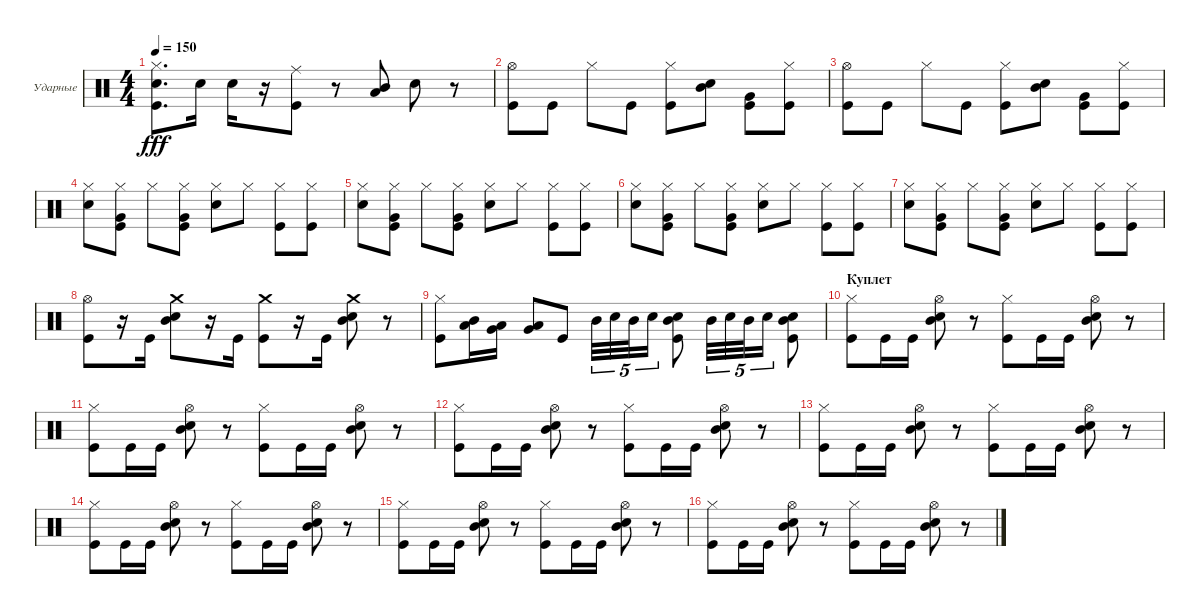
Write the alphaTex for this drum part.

\bracketExtendMode groupsimilarinstruments
\firstSystemTrackNameOrientation horizontal
\otherSystemsTrackNameOrientation horizontal
\track ("Максим Удалов" "Ударные") {instrument percussion}
\staff {score}
\articulation defaults
\ts (4 4)
\tempo 150
\clef neutral
\ks c
("Hi-Hat (closed)" "Snare (hit) 2" "Kick (hit)").8{d dy fff} "Snare (hit) 2".16 "Snare (hit) 2".16 r.16 ("Ride (middle)" "Kick (hit)").8 r.8 ("Low Tom (hit)" "Mid Tom (hit)").8 "Snare (hit) 2".8 r.8 |
("Hi-Hat (open)" "Kick (hit)").8 "Kick (hit)".8 "Hi-Hat (closed)".8 "Kick (hit)".8 ("Kick (hit)" "Hi-Hat (closed)").8 ("Snare (hit) 2" "Mid Tom (hit)").8 ("Very Low Tom (hit)" "Kick (hit)").8 ("Kick (hit)" "Hi-Hat (closed)").8 |
("Hi-Hat (open)" "Kick (hit)").8 "Kick (hit)".8 "Hi-Hat (closed)".8 "Kick (hit)".8 ("Kick (hit)" "Hi-Hat (closed)").8 ("Snare (hit) 2" "Mid Tom (hit)").8 ("Very Low Tom (hit)" "Kick (hit)").8 ("Kick (hit)" "Hi-Hat (closed)").8 |
("Snare (hit) 2" "Hi-Hat (closed)").8 ("Hi-Hat (closed)" "Very Low Tom (hit)" "Kick (hit)").8 "Hi-Hat (closed)".8 ("Hi-Hat (closed)" "Very Low Tom (hit)" "Kick (hit)").8 ("Hi-Hat (closed)" "Snare (hit) 2").8 "Hi-Hat (closed)".8 ("Hi-Hat (closed)" "Kick (hit)").8 ("Hi-Hat (closed)" "Kick (hit)").8 |
("Snare (hit) 2" "Hi-Hat (closed)").8 ("Hi-Hat (closed)" "Very Low Tom (hit)" "Kick (hit)").8 "Hi-Hat (closed)".8 ("Hi-Hat (closed)" "Very Low Tom (hit)" "Kick (hit)").8 ("Hi-Hat (closed)" "Snare (hit) 2").8 "Hi-Hat (closed)".8 ("Hi-Hat (closed)" "Kick (hit)").8 ("Hi-Hat (closed)" "Kick (hit)").8 |
("Snare (hit) 2" "Hi-Hat (closed)").8 ("Hi-Hat (closed)" "Very Low Tom (hit)" "Kick (hit)").8 "Hi-Hat (closed)".8 ("Hi-Hat (closed)" "Very Low Tom (hit)" "Kick (hit)").8 ("Hi-Hat (closed)" "Snare (hit) 2").8 "Hi-Hat (closed)".8 ("Hi-Hat (closed)" "Kick (hit)").8 ("Hi-Hat (closed)" "Kick (hit)").8 |
("Snare (hit) 2" "Hi-Hat (closed)").8 ("Hi-Hat (closed)" "Very Low Tom (hit)" "Kick (hit)").8 "Hi-Hat (closed)".8 ("Hi-Hat (closed)" "Very Low Tom (hit)" "Kick (hit)").8 ("Hi-Hat (closed)" "Snare (hit) 2").8 "Hi-Hat (closed)".8 ("Hi-Hat (closed)" "Kick (hit)").8 ("Hi-Hat (closed)" "Kick (hit)").8 |
\section ("" "")
("Kick (hit)" "Hi-Hat (open)").8 r.16 "Kick (hit)".16 ("Mid Tom (hit)" "Snare (hit) 2" "Crash medium (hit)").8 r.16 "Kick (hit)".16 ("Kick (hit)" "Crash medium (hit)").8 r.16 "Kick (hit)".16 ("Mid Tom (hit)" "Snare (hit) 2" "Crash medium (hit)").8 r.8 |
("Hi-Hat (closed)" "Kick (hit)").8 ("Mid Tom (hit)" "Low Tom (hit)").16 ("Low Tom (hit)" "Very Low Tom (hit)").16 ("Low Tom (hit)" "Very Low Tom (hit)").8 "Kick (hit)".8 "Mid Tom (hit)".32{tu (5 4)} "Snare (hit) 2".32{tu (5 4)} "Mid Tom (hit)".32{tu (5 4)} "Snare (hit) 2".16{tu (5 4)} ("Kick (hit)" "Mid Tom (hit)" "Snare (hit) 2").8 "Mid Tom (hit)".32{tu (5 4)} "Snare (hit) 2".32{tu (5 4)} "Mid Tom (hit)".32{tu (5 4)} "Snare (hit) 2".16{tu (5 4)} ("Mid Tom (hit)" "Kick (hit)" "Snare (hit) 2").8 |
\section ("" "Куплет")
("Hi-Hat (closed)" "Kick (hit)").8 "Kick (hit)".16 "Kick (hit)".16 ("Hi-Hat (open)" "Mid Tom (hit)" "Snare (hit) 2").8 r.8 ("Hi-Hat (closed)" "Kick (hit)").8 "Kick (hit)".16 "Kick (hit)".16 ("Hi-Hat (open)" "Mid Tom (hit)" "Snare (hit) 2").8 r.8 |
("Hi-Hat (closed)" "Kick (hit)").8 "Kick (hit)".16 "Kick (hit)".16 ("Hi-Hat (open)" "Mid Tom (hit)" "Snare (hit) 2").8 r.8 ("Hi-Hat (closed)" "Kick (hit)").8 "Kick (hit)".16 "Kick (hit)".16 ("Hi-Hat (open)" "Mid Tom (hit)" "Snare (hit) 2").8 r.8 |
("Hi-Hat (closed)" "Kick (hit)").8 "Kick (hit)".16 "Kick (hit)".16 ("Hi-Hat (open)" "Mid Tom (hit)" "Snare (hit) 2").8 r.8 ("Hi-Hat (closed)" "Kick (hit)").8 "Kick (hit)".16 "Kick (hit)".16 ("Hi-Hat (open)" "Mid Tom (hit)" "Snare (hit) 2").8 r.8 |
("Hi-Hat (closed)" "Kick (hit)").8 "Kick (hit)".16 "Kick (hit)".16 ("Hi-Hat (open)" "Mid Tom (hit)" "Snare (hit) 2").8 r.8 ("Hi-Hat (closed)" "Kick (hit)").8 "Kick (hit)".16 "Kick (hit)".16 ("Hi-Hat (open)" "Mid Tom (hit)" "Snare (hit) 2").8 r.8 |
("Hi-Hat (closed)" "Kick (hit)").8 "Kick (hit)".16 "Kick (hit)".16 ("Hi-Hat (open)" "Mid Tom (hit)" "Snare (hit) 2").8 r.8 ("Hi-Hat (closed)" "Kick (hit)").8 "Kick (hit)".16 "Kick (hit)".16 ("Hi-Hat (open)" "Mid Tom (hit)" "Snare (hit) 2").8 r.8 |
("Hi-Hat (closed)" "Kick (hit)").8 "Kick (hit)".16 "Kick (hit)".16 ("Hi-Hat (open)" "Mid Tom (hit)" "Snare (hit) 2").8 r.8 ("Hi-Hat (closed)" "Kick (hit)").8 "Kick (hit)".16 "Kick (hit)".16 ("Hi-Hat (open)" "Mid Tom (hit)" "Snare (hit) 2").8 r.8 |
("Hi-Hat (closed)" "Kick (hit)").8 "Kick (hit)".16 "Kick (hit)".16 ("Hi-Hat (open)" "Mid Tom (hit)" "Snare (hit) 2").8 r.8 ("Hi-Hat (closed)" "Kick (hit)").8 "Kick (hit)".16 "Kick (hit)".16 ("Hi-Hat (open)" "Mid Tom (hit)" "Snare (hit) 2").8 r.8
